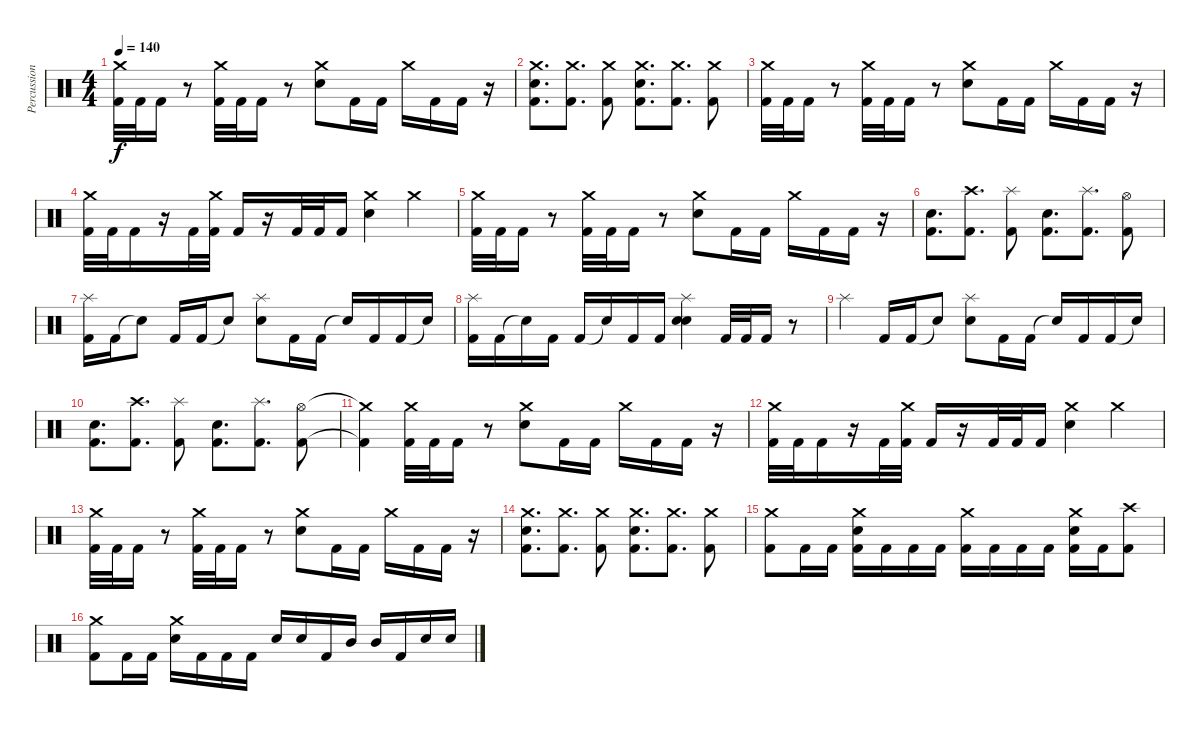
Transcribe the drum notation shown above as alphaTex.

\track ("Percussion" "Percussion") {instrument percussion}
\staff {score}
\articulation defaults
\ts (4 4)
\tempo 140
\clef neutral
\ks c
("Crash medium (hit)" "Kick (hit) 2").32{dy f} "Kick (hit) 2".32 "Kick (hit) 2".16 r.8 ("Crash medium (hit)" "Kick (hit) 2").32 "Kick (hit) 2".32 "Kick (hit) 2".16 r.8 ("Crash medium (hit)" "Electric Snare (hit)").8 "Kick (hit) 2".16 "Kick (hit) 2".16 "Crash medium (hit)".16 "Kick (hit) 2".16 "Kick (hit) 2".16 r.16 |
("Crash medium (hit)" "Electric Snare (hit)" "Kick (hit) 2").8{d} ("Crash medium (hit)" "Kick (hit) 2").8{d} ("Crash medium (hit)" "Kick (hit) 2").8 ("Crash medium (hit)" "Electric Snare (hit)" "Kick (hit) 2").8{d} ("Crash medium (hit)" "Kick (hit) 2").8{d} ("Crash medium (hit)" "Kick (hit) 2").8 |
("Crash medium (hit)" "Kick (hit) 2").32 "Kick (hit) 2".32 "Kick (hit) 2".16 r.8 ("Crash medium (hit)" "Kick (hit) 2").32 "Kick (hit) 2".32 "Kick (hit) 2".16 r.8 ("Crash medium (hit)" "Electric Snare (hit)").8 "Kick (hit) 2".16 "Kick (hit) 2".16 "Crash medium (hit)".16 "Kick (hit) 2".16 "Kick (hit) 2".16 r.16 |
("Crash medium (hit)" "Kick (hit) 2").32 "Kick (hit) 2".32 "Kick (hit) 2".16 r.16 "Kick (hit) 2".32 ("Crash medium (hit)" "Kick (hit) 2").32 "Kick (hit) 2".16 r.16 "Kick (hit) 2".32 "Kick (hit) 2".32 "Kick (hit) 2".16 ("Crash medium (hit)" "Electric Snare (hit)").4 "Crash medium (hit)".4 |
("Crash medium (hit)" "Kick (hit) 2").32 "Kick (hit) 2".32 "Kick (hit) 2".16 r.8 ("Crash medium (hit)" "Kick (hit) 2").32 "Kick (hit) 2".32 "Kick (hit) 2".16 r.8 ("Crash medium (hit)" "Electric Snare (hit)").8 "Kick (hit) 2".16 "Kick (hit) 2".16 "Crash medium (hit)".16 "Kick (hit) 2".16 "Kick (hit) 2".16 r.16 |
("Electric Snare (hit)" "Kick (hit) 2").8{d} ("Crash high (hit)" "Kick (hit) 2").8{d} ("Splash (hit)" "Kick (hit) 2").8 ("Electric Snare (hit)" "Kick (hit) 2").8{d} ("Splash (hit)" "Kick (hit) 2").8{d} ("Hi-Hat (open)" "Kick (hit) 2").8 |
("Splash (hit)" "Kick (hit) 2").16 "Kick (hit) 2".16 "Snare (hit)"{t}.8 "Kick (hit) 2".16 "Kick (hit) 2".16 "Snare (hit)"{t}.8 ("Splash (hit)" "Electric Snare (hit)").8 "Kick (hit) 2".16 "Kick (hit) 2".16 "Snare (hit)"{t}.16 "Kick (hit) 2".16 "Kick (hit) 2".16 "Snare (hit)"{t}.16 |
("Splash (hit)" "Kick (hit) 2").16 "Kick (hit) 2".16 "Snare (hit)"{t}.16 "Kick (hit) 2".16 "Kick (hit) 2".16 "Snare (hit)"{t}.16 "Kick (hit) 2".16 "Kick (hit) 2".16 ("Splash (hit)" "Electric Snare (hit)" "Snare (hit)").4 "Kick (hit) 2".32 "Kick (hit) 2".32 "Kick (hit) 2".16 r.8 |
"Splash (hit)".4 "Kick (hit) 2".16 "Kick (hit) 2".16 "Snare (hit)"{t}.8 ("Splash (hit)" "Electric Snare (hit)").8 "Kick (hit) 2".16 "Kick (hit) 2".16 "Snare (hit)"{t}.16 "Kick (hit) 2".16 "Kick (hit) 2".16 "Snare (hit)"{t}.16 |
("Electric Snare (hit)" "Kick (hit) 2").8{d} ("Crash high (hit)" "Kick (hit) 2").8{d} ("Splash (hit)" "Kick (hit) 2").8 ("Electric Snare (hit)" "Kick (hit) 2").8{d} ("Splash (hit)" "Kick (hit) 2").8{d} ("Hi-Hat (open)" "Kick (hit) 2").8 |
("Crash medium (hit)"{t} "Kick (hit) 2"{t}).4 ("Crash medium (hit)" "Kick (hit) 2").32 "Kick (hit) 2".32 "Kick (hit) 2".16 r.8 ("Crash medium (hit)" "Electric Snare (hit)").8 "Kick (hit) 2".16 "Kick (hit) 2".16 "Crash medium (hit)".16 "Kick (hit) 2".16 "Kick (hit) 2".16 r.16 |
("Crash medium (hit)" "Kick (hit) 2").32 "Kick (hit) 2".32 "Kick (hit) 2".16 r.16 "Kick (hit) 2".32 ("Crash medium (hit)" "Kick (hit) 2").32 "Kick (hit) 2".16 r.16 "Kick (hit) 2".32 "Kick (hit) 2".32 "Kick (hit) 2".16 ("Crash medium (hit)" "Electric Snare (hit)").4 "Crash medium (hit)".4 |
("Crash medium (hit)" "Kick (hit) 2").32 "Kick (hit) 2".32 "Kick (hit) 2".16 r.8 ("Crash medium (hit)" "Kick (hit) 2").32 "Kick (hit) 2".32 "Kick (hit) 2".16 r.8 ("Crash medium (hit)" "Electric Snare (hit)").8 "Kick (hit) 2".16 "Kick (hit) 2".16 "Crash medium (hit)".16 "Kick (hit) 2".16 "Kick (hit) 2".16 r.16 |
("Crash medium (hit)" "Electric Snare (hit)" "Kick (hit) 2").8{d} ("Crash medium (hit)" "Kick (hit) 2").8{d} ("Crash medium (hit)" "Kick (hit) 2").8 ("Crash medium (hit)" "Electric Snare (hit)" "Kick (hit) 2").8{d} ("Crash medium (hit)" "Kick (hit) 2").8{d} ("Crash medium (hit)" "Kick (hit) 2").8 |
("Crash medium (hit)" "Kick (hit) 2").8 "Kick (hit) 2".16 "Kick (hit) 2".16 ("Crash medium (hit)" "Electric Snare (hit)" "Kick (hit) 2").16 "Kick (hit) 2".16 "Kick (hit) 2".16 "Kick (hit) 2".16 ("Crash medium (hit)" "Kick (hit) 2").16 "Kick (hit) 2".16 "Kick (hit) 2".16 "Kick (hit) 2".16 ("Crash medium (hit)" "Electric Snare (hit)" "Kick (hit) 2").16 "Kick (hit) 2".16 ("Crash high (hit)" "Kick (hit) 2").8 |
("Crash medium (hit)" "Kick (hit) 2").8 "Kick (hit) 2".16 "Kick (hit) 2".16 ("Crash medium (hit)" "Electric Snare (hit)").16 "Kick (hit) 2".16 "Kick (hit) 2".16 "Kick (hit) 2".16 "Electric Snare (hit)".16 "Electric Snare (hit)".16 "Kick (hit) 2".16 "Mid Tom (hit)".16 "Mid Tom (hit)".16 "Kick (hit) 2".16 "Electric Snare (hit)".16 "Electric Snare (hit)".16
